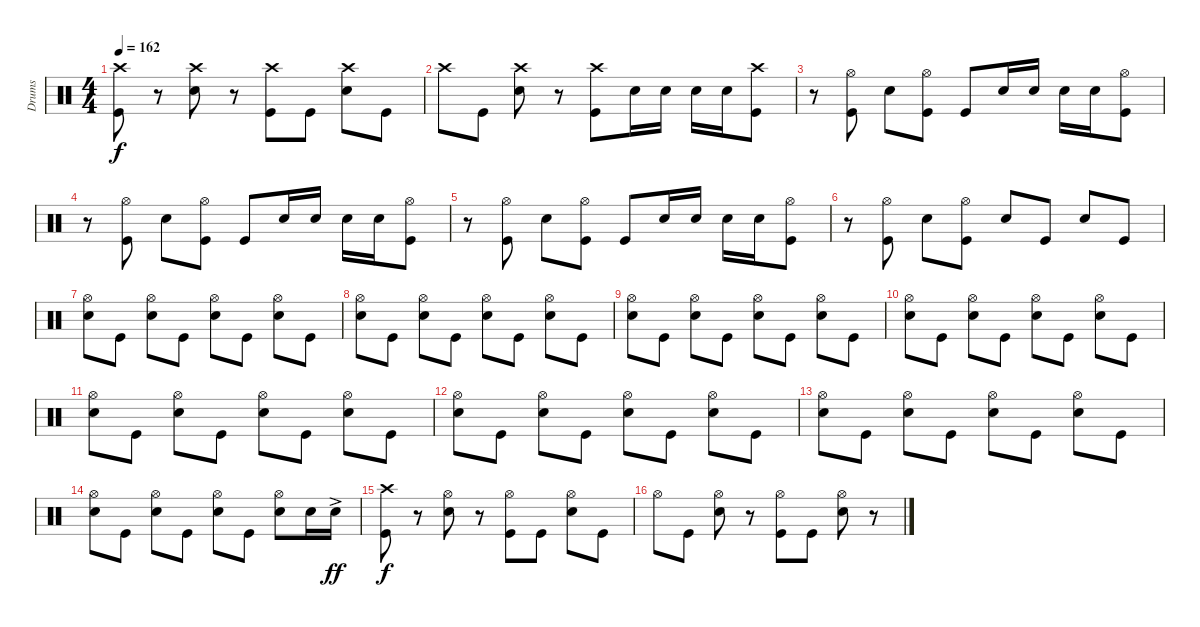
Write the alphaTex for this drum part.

\track ("Drums" "Drums") {instrument percussion}
\staff {score}
\articulation defaults
\ts (4 4)
\tempo 162
\clef neutral
\ks c
("Crash high (hit)" "Kick (hit)").8{dy f} r.8 ("Crash high (hit)" "Snare (hit) 2").8 r.8 ("Crash high (hit)" "Kick (hit)").8 "Kick (hit)".8 ("Crash high (hit)" "Snare (hit) 2").8 "Kick (hit)".8 |
"Crash high (hit)".8 "Kick (hit)".8 ("Crash high (hit)" "Snare (hit) 2").8 r.8 ("Crash high (hit)" "Kick (hit)").8 "Snare (hit) 2".16 "Snare (hit) 2".16 "Snare (hit) 2".16 "Snare (hit) 2".16 ("Crash high (hit)" "Kick (hit)").8 |
r.8 ("Hi-Hat (open)" "Kick (hit)").8 "Snare (hit) 2".8 ("Hi-Hat (open)" "Kick (hit)").8 "Kick (hit)".8 "Snare (hit) 2".16 "Snare (hit) 2".16 "Snare (hit) 2".16 "Snare (hit) 2".16 ("Hi-Hat (open)" "Kick (hit)").8 |
r.8 ("Hi-Hat (open)" "Kick (hit)").8 "Snare (hit) 2".8 ("Hi-Hat (open)" "Kick (hit)").8 "Kick (hit)".8 "Snare (hit) 2".16 "Snare (hit) 2".16 "Snare (hit) 2".16 "Snare (hit) 2".16 ("Hi-Hat (open)" "Kick (hit)").8 |
r.8 ("Hi-Hat (open)" "Kick (hit)").8 "Snare (hit) 2".8 ("Hi-Hat (open)" "Kick (hit)").8 "Kick (hit)".8 "Snare (hit) 2".16 "Snare (hit) 2".16 "Snare (hit) 2".16 "Snare (hit) 2".16 ("Hi-Hat (open)" "Kick (hit)").8 |
r.8 ("Hi-Hat (open)" "Kick (hit)").8 "Snare (hit) 2".8 ("Hi-Hat (open)" "Kick (hit)").8 "Snare (hit) 2".8 "Kick (hit)".8 "Snare (hit) 2".8 "Kick (hit)".8 |
("Hi-Hat (open)" "Snare (hit) 2").8 "Kick (hit)".8 ("Hi-Hat (open)" "Snare (hit) 2").8 "Kick (hit)".8 ("Hi-Hat (open)" "Snare (hit) 2").8 "Kick (hit)".8 ("Hi-Hat (open)" "Snare (hit) 2").8 "Kick (hit)".8 |
("Hi-Hat (open)" "Snare (hit) 2").8 "Kick (hit)".8 ("Hi-Hat (open)" "Snare (hit) 2").8 "Kick (hit)".8 ("Hi-Hat (open)" "Snare (hit) 2").8 "Kick (hit)".8 ("Hi-Hat (open)" "Snare (hit) 2").8 "Kick (hit)".8 |
("Hi-Hat (open)" "Snare (hit) 2").8 "Kick (hit)".8 ("Hi-Hat (open)" "Snare (hit) 2").8 "Kick (hit)".8 ("Hi-Hat (open)" "Snare (hit) 2").8 "Kick (hit)".8 ("Hi-Hat (open)" "Snare (hit) 2").8 "Kick (hit)".8 |
("Hi-Hat (open)" "Snare (hit) 2").8 "Kick (hit)".8 ("Hi-Hat (open)" "Snare (hit) 2").8 "Kick (hit)".8 ("Hi-Hat (open)" "Snare (hit) 2").8 "Kick (hit)".8 ("Hi-Hat (open)" "Snare (hit) 2").8 "Kick (hit)".8 |
("Hi-Hat (open)" "Snare (hit) 2").8 "Kick (hit)".8 ("Hi-Hat (open)" "Snare (hit) 2").8 "Kick (hit)".8 ("Hi-Hat (open)" "Snare (hit) 2").8 "Kick (hit)".8 ("Hi-Hat (open)" "Snare (hit) 2").8 "Kick (hit)".8 |
("Hi-Hat (open)" "Snare (hit) 2").8 "Kick (hit)".8 ("Hi-Hat (open)" "Snare (hit) 2").8 "Kick (hit)".8 ("Hi-Hat (open)" "Snare (hit) 2").8 "Kick (hit)".8 ("Hi-Hat (open)" "Snare (hit) 2").8 "Kick (hit)".8 |
("Hi-Hat (open)" "Snare (hit) 2").8 "Kick (hit)".8 ("Hi-Hat (open)" "Snare (hit) 2").8 "Kick (hit)".8 ("Hi-Hat (open)" "Snare (hit) 2").8 "Kick (hit)".8 ("Hi-Hat (open)" "Snare (hit) 2").8 "Kick (hit)".8 |
("Hi-Hat (open)" "Snare (hit) 2").8 "Kick (hit)".8 ("Hi-Hat (open)" "Snare (hit) 2").8 "Kick (hit)".8 ("Hi-Hat (open)" "Snare (hit) 2").8 "Kick (hit)".8 ("Hi-Hat (open)" "Snare (hit) 2").8 "Snare (hit) 2".16 "Snare (hit) 2"{ac}.16{dy ff} |
("Crash high (hit)" "Kick (hit)").8{dy f} r.8 ("Hi-Hat (open)" "Snare (hit) 2").8 r.8 ("Hi-Hat (open)" "Kick (hit)").8 "Kick (hit)".8 ("Hi-Hat (open)" "Snare (hit) 2").8 "Kick (hit)".8 |
"Hi-Hat (open)".8 "Kick (hit)".8 ("Hi-Hat (open)" "Snare (hit) 2").8 r.8 ("Hi-Hat (open)" "Kick (hit)").8 "Kick (hit)".8 ("Hi-Hat (open)" "Snare (hit) 2").8 r.8
